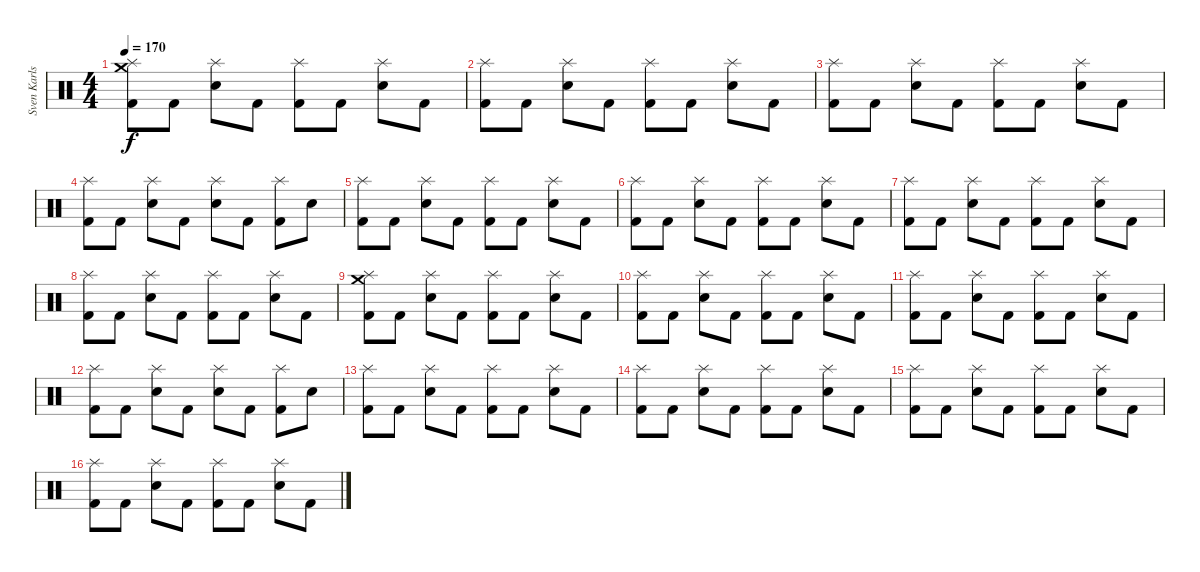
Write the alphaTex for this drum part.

\track ("Sven Karlsson" "Sven Karls") {instrument percussion}
\staff {score}
\articulation defaults
\ts (4 4)
\tempo 170
\clef neutral
\ks c
("Splash (hit)" "Crash medium (hit)" "Kick (hit) 2").8{dy f} "Kick (hit) 2".8 ("Splash (hit)" "Electric Snare (hit)").8 "Kick (hit) 2".8 ("Splash (hit)" "Kick (hit) 2").8 "Kick (hit) 2".8 ("Splash (hit)" "Electric Snare (hit)").8 "Kick (hit) 2".8 |
("Splash (hit)" "Kick (hit) 2").8 "Kick (hit) 2".8 ("Splash (hit)" "Electric Snare (hit)").8 "Kick (hit) 2".8 ("Splash (hit)" "Kick (hit) 2").8 "Kick (hit) 2".8 ("Splash (hit)" "Electric Snare (hit)").8 "Kick (hit) 2".8 |
("Splash (hit)" "Kick (hit) 2").8 "Kick (hit) 2".8 ("Splash (hit)" "Electric Snare (hit)").8 "Kick (hit) 2".8 ("Splash (hit)" "Kick (hit) 2").8 "Kick (hit) 2".8 ("Splash (hit)" "Electric Snare (hit)").8 "Kick (hit) 2".8 |
("Splash (hit)" "Kick (hit) 2").8 "Kick (hit) 2".8 ("Splash (hit)" "Electric Snare (hit)").8 "Kick (hit) 2".8 ("Splash (hit)" "Electric Snare (hit)").8 "Kick (hit) 2".8 ("Splash (hit)" "Kick (hit) 2").8 "Electric Snare (hit)".8 |
("Splash (hit)" "Kick (hit) 2").8 "Kick (hit) 2".8 ("Splash (hit)" "Electric Snare (hit)").8 "Kick (hit) 2".8 ("Splash (hit)" "Kick (hit) 2").8 "Kick (hit) 2".8 ("Splash (hit)" "Electric Snare (hit)").8 "Kick (hit) 2".8 |
("Splash (hit)" "Kick (hit) 2").8 "Kick (hit) 2".8 ("Splash (hit)" "Electric Snare (hit)").8 "Kick (hit) 2".8 ("Splash (hit)" "Kick (hit) 2").8 "Kick (hit) 2".8 ("Splash (hit)" "Electric Snare (hit)").8 "Kick (hit) 2".8 |
("Splash (hit)" "Kick (hit) 2").8 "Kick (hit) 2".8 ("Splash (hit)" "Electric Snare (hit)").8 "Kick (hit) 2".8 ("Splash (hit)" "Kick (hit) 2").8 "Kick (hit) 2".8 ("Splash (hit)" "Electric Snare (hit)").8 "Kick (hit) 2".8 |
("Splash (hit)" "Kick (hit) 2").8 "Kick (hit) 2".8 ("Splash (hit)" "Electric Snare (hit)").8 "Kick (hit) 2".8 ("Splash (hit)" "Kick (hit) 2").8 "Kick (hit) 2".8 ("Splash (hit)" "Electric Snare (hit)").8 "Kick (hit) 2".8 |
("Splash (hit)" "Crash medium (hit)" "Kick (hit) 2").8 "Kick (hit) 2".8 ("Splash (hit)" "Electric Snare (hit)").8 "Kick (hit) 2".8 ("Splash (hit)" "Kick (hit) 2").8 "Kick (hit) 2".8 ("Splash (hit)" "Electric Snare (hit)").8 "Kick (hit) 2".8 |
("Splash (hit)" "Kick (hit) 2").8 "Kick (hit) 2".8 ("Splash (hit)" "Electric Snare (hit)").8 "Kick (hit) 2".8 ("Splash (hit)" "Kick (hit) 2").8 "Kick (hit) 2".8 ("Splash (hit)" "Electric Snare (hit)").8 "Kick (hit) 2".8 |
("Splash (hit)" "Kick (hit) 2").8 "Kick (hit) 2".8 ("Splash (hit)" "Electric Snare (hit)").8 "Kick (hit) 2".8 ("Splash (hit)" "Kick (hit) 2").8 "Kick (hit) 2".8 ("Splash (hit)" "Electric Snare (hit)").8 "Kick (hit) 2".8 |
("Splash (hit)" "Kick (hit) 2").8 "Kick (hit) 2".8 ("Splash (hit)" "Electric Snare (hit)").8 "Kick (hit) 2".8 ("Splash (hit)" "Electric Snare (hit)").8 "Kick (hit) 2".8 ("Splash (hit)" "Kick (hit) 2").8 "Electric Snare (hit)".8 |
("Splash (hit)" "Kick (hit) 2").8 "Kick (hit) 2".8 ("Splash (hit)" "Electric Snare (hit)").8 "Kick (hit) 2".8 ("Splash (hit)" "Kick (hit) 2").8 "Kick (hit) 2".8 ("Splash (hit)" "Electric Snare (hit)").8 "Kick (hit) 2".8 |
("Splash (hit)" "Kick (hit) 2").8 "Kick (hit) 2".8 ("Splash (hit)" "Electric Snare (hit)").8 "Kick (hit) 2".8 ("Splash (hit)" "Kick (hit) 2").8 "Kick (hit) 2".8 ("Splash (hit)" "Electric Snare (hit)").8 "Kick (hit) 2".8 |
("Splash (hit)" "Kick (hit) 2").8 "Kick (hit) 2".8 ("Splash (hit)" "Electric Snare (hit)").8 "Kick (hit) 2".8 ("Splash (hit)" "Kick (hit) 2").8 "Kick (hit) 2".8 ("Splash (hit)" "Electric Snare (hit)").8 "Kick (hit) 2".8 |
("Splash (hit)" "Kick (hit) 2").8 "Kick (hit) 2".8 ("Splash (hit)" "Electric Snare (hit)").8 "Kick (hit) 2".8 ("Splash (hit)" "Kick (hit) 2").8 "Kick (hit) 2".8 ("Splash (hit)" "Electric Snare (hit)").8 "Kick (hit) 2".8
